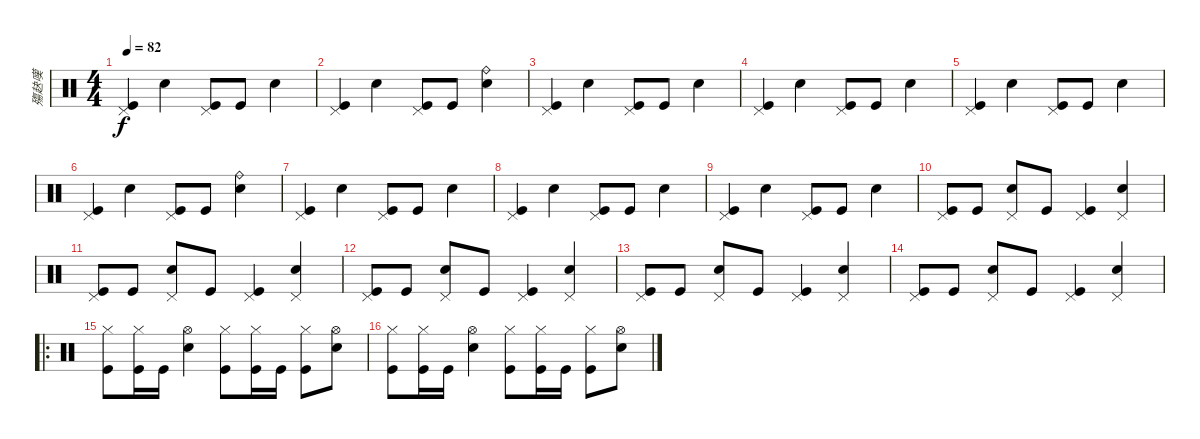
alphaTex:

\track ("殤赽嘆" "殤赽嘆") {instrument percussion}
\staff {score}
\articulation defaults
\ts (4 4)
\tempo 82
\clef neutral
\ks c
("Pedal Hi-Hat (hit)" "Kick (hit)").4{dy f} "Snare (hit) 2".4 ("Pedal Hi-Hat (hit)" "Kick (hit)").8 "Kick (hit)".8 "Snare (hit) 2".4 |
("Pedal Hi-Hat (hit)" "Kick (hit)").4 "Snare (hit) 2".4 ("Pedal Hi-Hat (hit)" "Kick (hit)").8 "Kick (hit)".8 ("Ride (bell)" "Snare (hit) 2").4 |
("Pedal Hi-Hat (hit)" "Kick (hit)").4 "Snare (hit) 2".4 ("Pedal Hi-Hat (hit)" "Kick (hit)").8 "Kick (hit)".8 "Snare (hit) 2".4 |
("Pedal Hi-Hat (hit)" "Kick (hit)").4 "Snare (hit) 2".4 ("Pedal Hi-Hat (hit)" "Kick (hit)").8 "Kick (hit)".8 "Snare (hit) 2".4 |
("Pedal Hi-Hat (hit)" "Kick (hit)").4 "Snare (hit) 2".4 ("Pedal Hi-Hat (hit)" "Kick (hit)").8 "Kick (hit)".8 "Snare (hit) 2".4 |
("Pedal Hi-Hat (hit)" "Kick (hit)").4 "Snare (hit) 2".4 ("Pedal Hi-Hat (hit)" "Kick (hit)").8 "Kick (hit)".8 ("Ride (bell)" "Snare (hit) 2").4 |
("Pedal Hi-Hat (hit)" "Kick (hit)").4 "Snare (hit) 2".4 ("Pedal Hi-Hat (hit)" "Kick (hit)").8 "Kick (hit)".8 "Snare (hit) 2".4 |
("Pedal Hi-Hat (hit)" "Kick (hit)").4 "Snare (hit) 2".4 ("Pedal Hi-Hat (hit)" "Kick (hit)").8 "Kick (hit)".8 "Snare (hit) 2".4 |
("Pedal Hi-Hat (hit)" "Kick (hit)").4 "Snare (hit) 2".4 ("Pedal Hi-Hat (hit)" "Kick (hit)").8 "Kick (hit)".8 "Snare (hit) 2".4 |
("Pedal Hi-Hat (hit)" "Kick (hit)").8 "Kick (hit)".8 ("Pedal Hi-Hat (hit)" "Snare (hit) 2").8 "Kick (hit)".8 ("Pedal Hi-Hat (hit)" "Kick (hit)").4 ("Pedal Hi-Hat (hit)" "Snare (hit) 2").4 |
("Pedal Hi-Hat (hit)" "Kick (hit)").8 "Kick (hit)".8 ("Pedal Hi-Hat (hit)" "Snare (hit) 2").8 "Kick (hit)".8 ("Pedal Hi-Hat (hit)" "Kick (hit)").4 ("Pedal Hi-Hat (hit)" "Snare (hit) 2").4 |
("Pedal Hi-Hat (hit)" "Kick (hit)").8 "Kick (hit)".8 ("Pedal Hi-Hat (hit)" "Snare (hit) 2").8 "Kick (hit)".8 ("Pedal Hi-Hat (hit)" "Kick (hit)").4 ("Pedal Hi-Hat (hit)" "Snare (hit) 2").4 |
("Pedal Hi-Hat (hit)" "Kick (hit)").8 "Kick (hit)".8 ("Pedal Hi-Hat (hit)" "Snare (hit) 2").8 "Kick (hit)".8 ("Pedal Hi-Hat (hit)" "Kick (hit)").4 ("Pedal Hi-Hat (hit)" "Snare (hit) 2").4 |
("Pedal Hi-Hat (hit)" "Kick (hit)").8 "Kick (hit)".8 ("Pedal Hi-Hat (hit)" "Snare (hit) 2").8 "Kick (hit)".8 ("Pedal Hi-Hat (hit)" "Kick (hit)").4 ("Pedal Hi-Hat (hit)" "Snare (hit) 2").4 |
\ro
("Hi-Hat (closed)" "Kick (hit)").8 ("Hi-Hat (closed)" "Kick (hit)").16 "Kick (hit)".16 ("Hi-Hat (open)" "Snare (hit) 2").4 ("Hi-Hat (closed)" "Kick (hit)").8 ("Hi-Hat (closed)" "Kick (hit)").16 "Kick (hit)".16 ("Hi-Hat (closed)" "Kick (hit)").8 ("Hi-Hat (open)" "Snare (hit) 2").8 |
("Hi-Hat (closed)" "Kick (hit)").8 ("Hi-Hat (closed)" "Kick (hit)").16 "Kick (hit)".16 ("Hi-Hat (open)" "Snare (hit) 2").4 ("Hi-Hat (closed)" "Kick (hit)").8 ("Hi-Hat (closed)" "Kick (hit)").16 "Kick (hit)".16 ("Hi-Hat (closed)" "Kick (hit)").8 ("Hi-Hat (open)" "Snare (hit) 2").8
